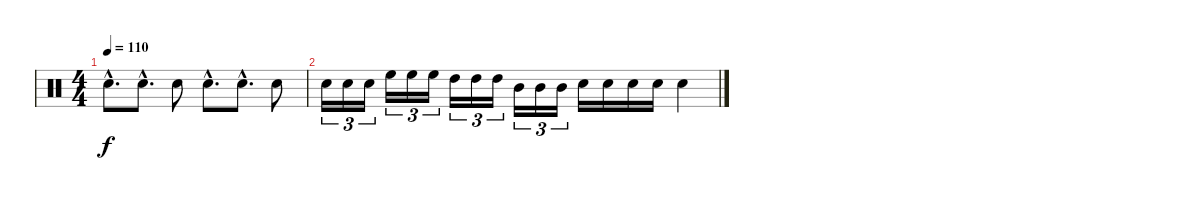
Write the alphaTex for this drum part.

\track "" {instrument percussion}
\staff {score}
\articulation defaults
\ts (4 4)
\tempo 110
\clef neutral
\ks c "Electric Snare (hit)"{hac}.8{d dy f} "Electric Snare (hit)"{hac}.8{d} "Electric Snare (hit)".8 "Electric Snare (hit)"{hac}.8{d} "Electric Snare (hit)"{hac}.8{d} "Electric Snare (hit)".8
|
"Electric Snare (hit)".16{tu (3 2)} "Electric Snare (hit)".16{tu (3 2)} "Electric Snare (hit)".16{tu (3 2)} "High Floor Tom (hit)".16{tu (3 2)} "High Floor Tom (hit)".16{tu (3 2)} "High Floor Tom (hit)".16{tu (3 2)} "High Tom (hit)".16{tu (3 2)} "High Tom (hit)".16{tu (3 2)} "High Tom (hit)".16{tu (3 2)} "Mid Tom (hit)".16{tu (3 2)} "Mid Tom (hit)".16{tu (3 2)} "Mid Tom (hit)".16{tu (3 2)} "Electric Snare (hit)".16 "Electric Snare (hit)".16 "Electric Snare (hit)".16 "Electric Snare (hit)".16 "Electric Snare (hit)".4
